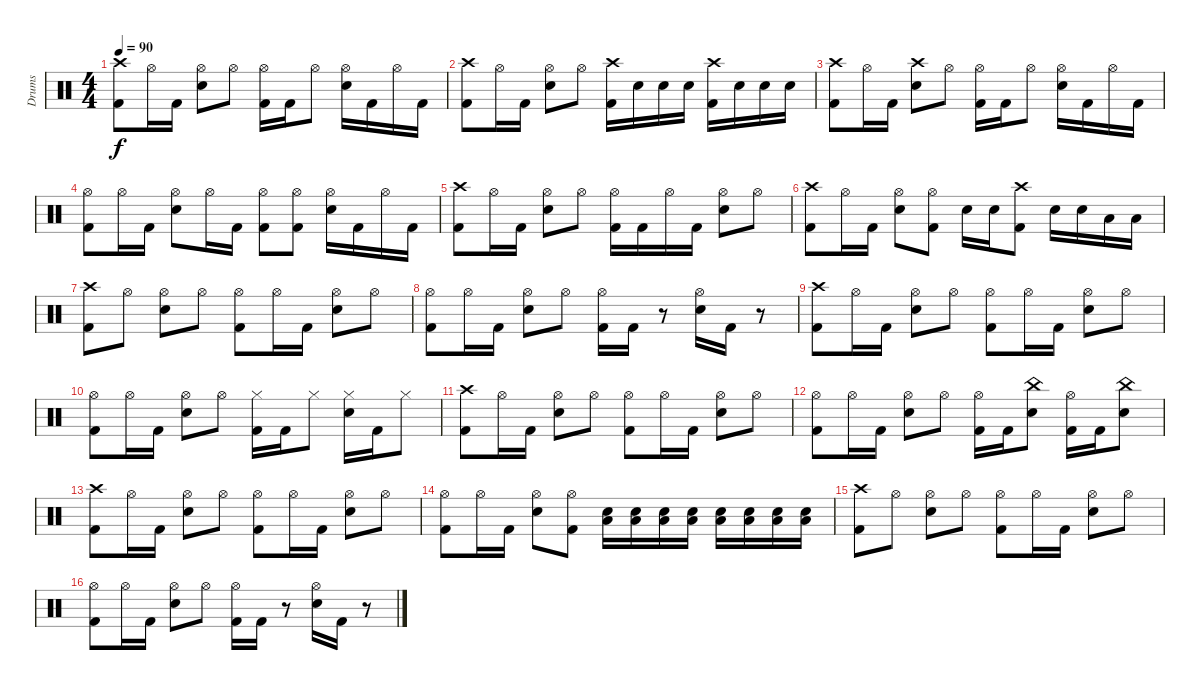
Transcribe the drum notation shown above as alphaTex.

\track ("Drums" "Drums") {instrument percussion}
\staff {score}
\articulation defaults
\ts (4 4)
\tempo 90
\clef neutral
\ks c
("Crash high (hit)" "Kick (hit) 2").8{dy f} "Hi-Hat (open)".16 "Kick (hit) 2".16 ("Hi-Hat (open)" "Electric Snare (hit)").8 "Hi-Hat (open)".8 ("Hi-Hat (open)" "Kick (hit) 2").16 "Kick (hit) 2".16 "Hi-Hat (open)".8 ("Hi-Hat (open)" "Electric Snare (hit)").16 "Kick (hit) 2".16 "Hi-Hat (open)".16 "Kick (hit) 2".16 |
("Crash high (hit)" "Kick (hit) 2").8 "Hi-Hat (open)".16 "Kick (hit) 2".16 ("Hi-Hat (open)" "Electric Snare (hit)").8 "Hi-Hat (open)".8 ("Crash high (hit)" "Kick (hit) 2").16 "Electric Snare (hit)".16 "Electric Snare (hit)".16 "Electric Snare (hit)".16 ("Crash high (hit)" "Kick (hit) 2").16 "Electric Snare (hit)".16 "Electric Snare (hit)".16 "Electric Snare (hit)".16 |
("Crash high (hit)" "Kick (hit) 2").8 "Hi-Hat (open)".16 "Kick (hit) 2".16 ("Crash high (hit)" "Electric Snare (hit)").8 "Hi-Hat (open)".8 ("Hi-Hat (open)" "Kick (hit) 2").16 "Kick (hit) 2".16 "Hi-Hat (open)".8 ("Hi-Hat (open)" "Electric Snare (hit)").16 "Kick (hit) 2".16 "Hi-Hat (open)".16 "Kick (hit) 2".16 |
("Hi-Hat (open)" "Kick (hit) 2").8 "Hi-Hat (open)".16 "Kick (hit) 2".16 ("Hi-Hat (open)" "Electric Snare (hit)").8 "Hi-Hat (open)".16 "Kick (hit) 2".16 ("Hi-Hat (open)" "Kick (hit) 2").8 ("Hi-Hat (open)" "Kick (hit) 2").8 ("Hi-Hat (open)" "Electric Snare (hit)").16 "Kick (hit) 2".16 "Hi-Hat (open)".16 "Kick (hit) 2".16 |
("Crash high (hit)" "Kick (hit) 2").8 "Hi-Hat (open)".16 "Kick (hit) 2".16 ("Hi-Hat (open)" "Electric Snare (hit)").8 "Hi-Hat (open)".8 ("Hi-Hat (open)" "Kick (hit) 2").16 "Kick (hit) 2".16 "Hi-Hat (open)".16 "Kick (hit) 2".16 ("Hi-Hat (open)" "Electric Snare (hit)").8 "Hi-Hat (open)".8 |
("Crash high (hit)" "Kick (hit) 2").8 "Hi-Hat (open)".16 "Kick (hit) 2".16 ("Hi-Hat (open)" "Electric Snare (hit)").8 ("Hi-Hat (open)" "Kick (hit) 2").8 "Electric Snare (hit)".16 "Electric Snare (hit)".16 ("Crash high (hit)" "Kick (hit) 2").8 "Electric Snare (hit)".16 "Electric Snare (hit)".16 "Low Tom (hit)".16 "Low Tom (hit)".16 |
("Crash high (hit)" "Kick (hit) 2").8 "Hi-Hat (open)".8 ("Hi-Hat (open)" "Electric Snare (hit)").8 "Hi-Hat (open)".8 ("Hi-Hat (open)" "Kick (hit) 2").8 "Hi-Hat (open)".16 "Kick (hit) 2".16 ("Hi-Hat (open)" "Electric Snare (hit)").8 "Hi-Hat (open)".8 |
("Hi-Hat (open)" "Kick (hit) 2").8 "Hi-Hat (open)".16 "Kick (hit) 2".16 ("Hi-Hat (open)" "Electric Snare (hit)").8 "Hi-Hat (open)".8 ("Hi-Hat (open)" "Kick (hit) 2").16 "Kick (hit) 2".16 r.8 ("Hi-Hat (open)" "Electric Snare (hit)").16 "Kick (hit) 2".16 r.8 |
("Crash high (hit)" "Kick (hit) 2").8 "Hi-Hat (open)".16 "Kick (hit) 2".16 ("Hi-Hat (open)" "Electric Snare (hit)").8 "Hi-Hat (open)".8 ("Hi-Hat (open)" "Kick (hit) 2").8 "Hi-Hat (open)".16 "Kick (hit) 2".16 ("Hi-Hat (open)" "Electric Snare (hit)").8 "Hi-Hat (open)".8 |
("Hi-Hat (open)" "Kick (hit) 2").8 "Hi-Hat (open)".16 "Kick (hit) 2".16 ("Hi-Hat (open)" "Electric Snare (hit)").8 "Hi-Hat (open)".8 ("Hi-Hat (closed)" "Kick (hit) 2").16 "Kick (hit) 2".16 "Hi-Hat (closed)".8 ("Hi-Hat (closed)" "Electric Snare (hit)").16 "Kick (hit) 2".16 "Hi-Hat (closed)".8 |
("Crash high (hit)" "Kick (hit) 2").8 "Hi-Hat (open)".16 "Kick (hit) 2".16 ("Hi-Hat (open)" "Electric Snare (hit)").8 "Hi-Hat (open)".8 ("Hi-Hat (open)" "Kick (hit) 2").8 "Hi-Hat (open)".16 "Kick (hit) 2".16 ("Hi-Hat (open)" "Electric Snare (hit)").8 "Hi-Hat (open)".8 |
("Hi-Hat (open)" "Kick (hit) 2").8 "Hi-Hat (open)".16 "Kick (hit) 2".16 ("Hi-Hat (open)" "Electric Snare (hit)").8 "Hi-Hat (open)".8 ("Hi-Hat (open)" "Kick (hit) 2").16 "Kick (hit) 2".16 ("China (hit)" "Electric Snare (hit)").8 ("Hi-Hat (open)" "Kick (hit) 2").16 "Kick (hit) 2".16 ("China (hit)" "Electric Snare (hit)").8 |
("Crash high (hit)" "Kick (hit) 2").8 "Hi-Hat (open)".16 "Kick (hit) 2".16 ("Hi-Hat (open)" "Electric Snare (hit)").8 "Hi-Hat (open)".8 ("Hi-Hat (open)" "Kick (hit) 2").8 "Hi-Hat (open)".16 "Kick (hit) 2".16 ("Hi-Hat (open)" "Electric Snare (hit)").8 "Hi-Hat (open)".8 |
("Hi-Hat (open)" "Kick (hit) 2").8 "Hi-Hat (open)".16 "Kick (hit) 2".16 ("Hi-Hat (open)" "Electric Snare (hit)").8 ("Hi-Hat (open)" "Kick (hit) 2").8 ("Electric Snare (hit)" "Low Floor Tom (hit)").16 ("Electric Snare (hit)" "Low Floor Tom (hit)").16 ("Electric Snare (hit)" "Low Floor Tom (hit)").16 ("Electric Snare (hit)" "Low Floor Tom (hit)").16 ("Electric Snare (hit)" "Low Floor Tom (hit)").16 ("Electric Snare (hit)" "Low Floor Tom (hit)").16 ("Electric Snare (hit)" "Low Floor Tom (hit)").16 ("Electric Snare (hit)" "Low Floor Tom (hit)").16 |
("Crash high (hit)" "Kick (hit) 2").8 "Hi-Hat (open)".8 ("Hi-Hat (open)" "Electric Snare (hit)").8 "Hi-Hat (open)".8 ("Hi-Hat (open)" "Kick (hit) 2").8 "Hi-Hat (open)".16 "Kick (hit) 2".16 ("Hi-Hat (open)" "Electric Snare (hit)").8 "Hi-Hat (open)".8 |
("Hi-Hat (open)" "Kick (hit) 2").8 "Hi-Hat (open)".16 "Kick (hit) 2".16 ("Hi-Hat (open)" "Electric Snare (hit)").8 "Hi-Hat (open)".8 ("Hi-Hat (open)" "Kick (hit) 2").16 "Kick (hit) 2".16 r.8 ("Hi-Hat (open)" "Electric Snare (hit)").16 "Kick (hit) 2".16 r.8
